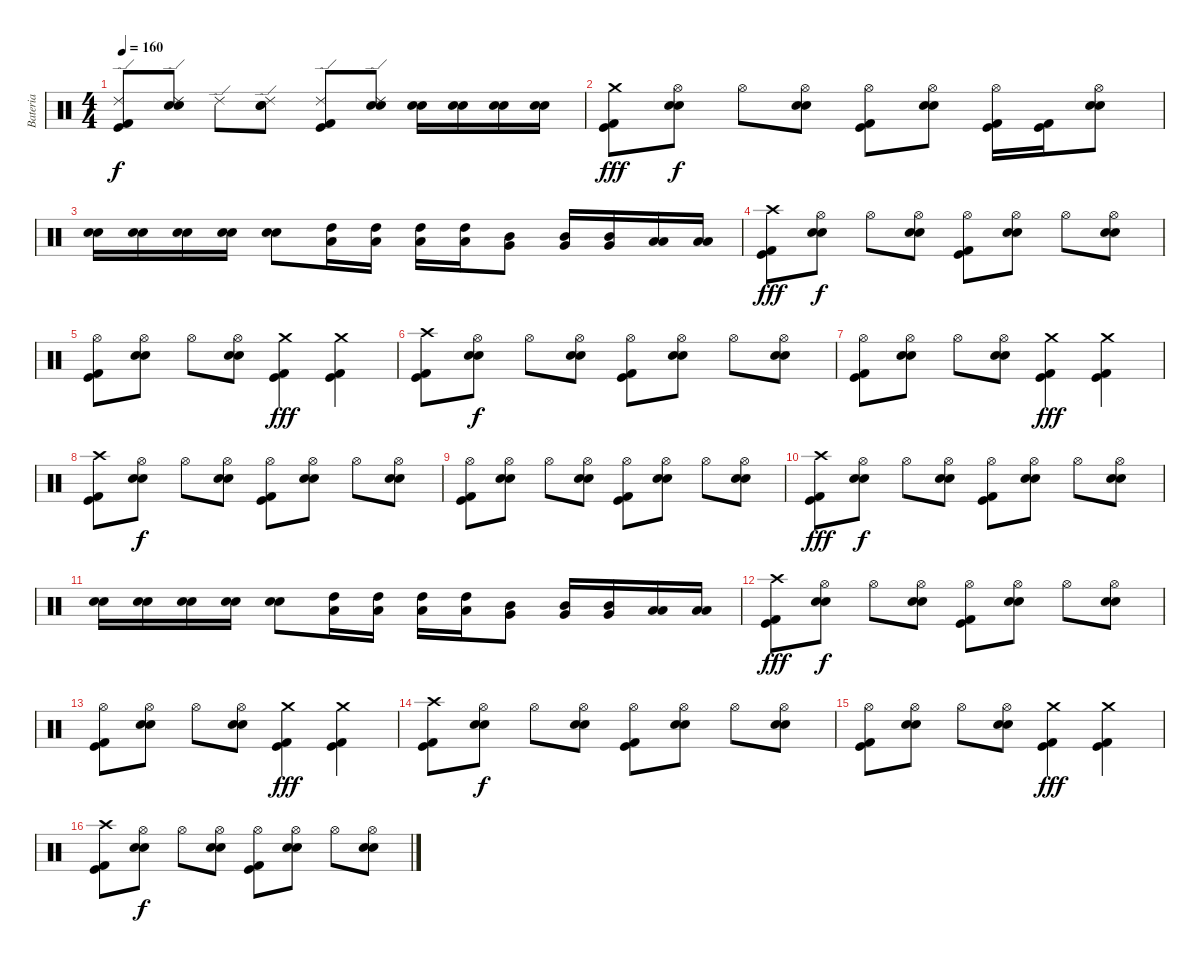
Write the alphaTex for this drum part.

\track ("Bateria" "Bateria") {instrument percussion}
\staff {score}
\articulation defaults
\ts (4 4)
\tempo 160
\clef neutral
\ks c
("Ride (edge) 2" "Kick (hit) 2" "Kick (hit)").8{dy f} ("Ride (edge) 2" "Electric Snare (hit)" "Snare (hit) 2").8 "Ride (edge) 2".8 ("Ride (edge) 2" "Electric Snare (hit)" "Snare (hit) 2").8 ("Ride (edge) 2" "Kick (hit) 2" "Kick (hit)").8 ("Ride (edge) 2" "Electric Snare (hit)" "Snare (hit) 2").8 ("Electric Snare (hit)" "Snare (hit) 2").16 ("Electric Snare (hit)" "Snare (hit) 2").16 ("Electric Snare (hit)" "Snare (hit) 2").16 ("Electric Snare (hit)" "Snare (hit) 2").16 |
("Crash medium (hit)" "Kick (hit) 2" "Kick (hit)").8{dy fff} ("Hi-Hat (open)" "Electric Snare (hit)" "Snare (hit) 2").8{dy f} "Hi-Hat (open)".8 ("Hi-Hat (open)" "Electric Snare (hit)" "Snare (hit) 2").8 ("Hi-Hat (open)" "Kick (hit) 2" "Kick (hit)").8 ("Hi-Hat (open)" "Electric Snare (hit)" "Snare (hit) 2").8 ("Hi-Hat (open)" "Kick (hit) 2" "Kick (hit)").16 ("Kick (hit) 2" "Kick (hit)").16 ("Hi-Hat (open)" "Electric Snare (hit)" "Snare (hit) 2").8 |
("Electric Snare (hit)" "Snare (hit) 2").16 ("Electric Snare (hit)" "Snare (hit) 2").16 ("Electric Snare (hit)" "Snare (hit) 2").16 ("Electric Snare (hit)" "Snare (hit) 2").16 ("Electric Snare (hit)" "Snare (hit) 2").8 ("High Tom (hit)" "Low Tom (hit)").16 ("High Tom (hit)" "Low Tom (hit)").16 ("High Tom (hit)" "Low Tom (hit)").16 ("High Tom (hit)" "Low Tom (hit)").16 ("Mid Tom (hit)" "Very Low Tom (hit)").8 ("Mid Tom (hit)" "Very Low Tom (hit)").16 ("Mid Tom (hit)" "Very Low Tom (hit)").16 ("Low Tom (hit)" "Low Floor Tom (hit)").16 ("Low Tom (hit)" "Low Floor Tom (hit)").16 |
("Crash high (hit)" "Kick (hit) 2" "Kick (hit)").8{dy fff} ("Hi-Hat (open)" "Electric Snare (hit)" "Snare (hit) 2").8{dy f} "Hi-Hat (open)".8 ("Hi-Hat (open)" "Electric Snare (hit)" "Snare (hit) 2").8 ("Hi-Hat (open)" "Kick (hit) 2" "Kick (hit)").8 ("Hi-Hat (open)" "Electric Snare (hit)" "Snare (hit) 2").8 "Hi-Hat (open)".8 ("Hi-Hat (open)" "Electric Snare (hit)" "Snare (hit) 2").8 |
("Hi-Hat (open)" "Kick (hit) 2" "Kick (hit)").8 ("Hi-Hat (open)" "Electric Snare (hit)" "Snare (hit) 2").8 "Hi-Hat (open)".8 ("Hi-Hat (open)" "Electric Snare (hit)" "Snare (hit) 2").8 ("Crash medium (hit)" "Kick (hit) 2" "Kick (hit)").4{dy fff} ("Crash medium (hit)" "Kick (hit) 2" "Kick (hit)").4 |
("Crash high (hit)" "Kick (hit) 2" "Kick (hit)").8 ("Hi-Hat (open)" "Electric Snare (hit)" "Snare (hit) 2").8{dy f} "Hi-Hat (open)".8 ("Hi-Hat (open)" "Electric Snare (hit)" "Snare (hit) 2").8 ("Hi-Hat (open)" "Kick (hit) 2" "Kick (hit)").8 ("Hi-Hat (open)" "Electric Snare (hit)" "Snare (hit) 2").8 "Hi-Hat (open)".8 ("Hi-Hat (open)" "Electric Snare (hit)" "Snare (hit) 2").8 |
("Hi-Hat (open)" "Kick (hit) 2" "Kick (hit)").8 ("Hi-Hat (open)" "Electric Snare (hit)" "Snare (hit) 2").8 "Hi-Hat (open)".8 ("Hi-Hat (open)" "Electric Snare (hit)" "Snare (hit) 2").8 ("Crash medium (hit)" "Kick (hit) 2" "Kick (hit)").4{dy fff} ("Crash medium (hit)" "Kick (hit) 2" "Kick (hit)").4 |
("Crash high (hit)" "Kick (hit) 2" "Kick (hit)").8 ("Hi-Hat (open)" "Electric Snare (hit)" "Snare (hit) 2").8{dy f} "Hi-Hat (open)".8 ("Hi-Hat (open)" "Electric Snare (hit)" "Snare (hit) 2").8 ("Hi-Hat (open)" "Kick (hit) 2" "Kick (hit)").8 ("Hi-Hat (open)" "Electric Snare (hit)" "Snare (hit) 2").8 "Hi-Hat (open)".8 ("Hi-Hat (open)" "Electric Snare (hit)" "Snare (hit) 2").8 |
("Hi-Hat (open)" "Kick (hit) 2" "Kick (hit)").8 ("Hi-Hat (open)" "Electric Snare (hit)" "Snare (hit) 2").8 "Hi-Hat (open)".8 ("Hi-Hat (open)" "Electric Snare (hit)" "Snare (hit) 2").8 ("Hi-Hat (open)" "Kick (hit) 2" "Kick (hit)").8 ("Hi-Hat (open)" "Electric Snare (hit)" "Snare (hit) 2").8 "Hi-Hat (open)".8 ("Hi-Hat (open)" "Electric Snare (hit)" "Snare (hit) 2").8 |
("Crash high (hit)" "Kick (hit) 2" "Kick (hit)").8{dy fff} ("Hi-Hat (open)" "Electric Snare (hit)" "Snare (hit) 2").8{dy f} "Hi-Hat (open)".8 ("Hi-Hat (open)" "Electric Snare (hit)" "Snare (hit) 2").8 ("Hi-Hat (open)" "Kick (hit) 2" "Kick (hit)").8 ("Hi-Hat (open)" "Electric Snare (hit)" "Snare (hit) 2").8 "Hi-Hat (open)".8 ("Hi-Hat (open)" "Electric Snare (hit)" "Snare (hit) 2").8 |
("Electric Snare (hit)" "Snare (hit) 2").16 ("Electric Snare (hit)" "Snare (hit) 2").16 ("Electric Snare (hit)" "Snare (hit) 2").16 ("Electric Snare (hit)" "Snare (hit) 2").16 ("Electric Snare (hit)" "Snare (hit) 2").8 ("High Tom (hit)" "Low Tom (hit)").16 ("High Tom (hit)" "Low Tom (hit)").16 ("High Tom (hit)" "Low Tom (hit)").16 ("High Tom (hit)" "Low Tom (hit)").16 ("Mid Tom (hit)" "Very Low Tom (hit)").8 ("Mid Tom (hit)" "Very Low Tom (hit)").16 ("Mid Tom (hit)" "Very Low Tom (hit)").16 ("Low Tom (hit)" "Low Floor Tom (hit)").16 ("Low Tom (hit)" "Low Floor Tom (hit)").16 |
("Crash high (hit)" "Kick (hit) 2" "Kick (hit)").8{dy fff} ("Hi-Hat (open)" "Electric Snare (hit)" "Snare (hit) 2").8{dy f} "Hi-Hat (open)".8 ("Hi-Hat (open)" "Electric Snare (hit)" "Snare (hit) 2").8 ("Hi-Hat (open)" "Kick (hit) 2" "Kick (hit)").8 ("Hi-Hat (open)" "Electric Snare (hit)" "Snare (hit) 2").8 "Hi-Hat (open)".8 ("Hi-Hat (open)" "Electric Snare (hit)" "Snare (hit) 2").8 |
("Hi-Hat (open)" "Kick (hit) 2" "Kick (hit)").8 ("Hi-Hat (open)" "Electric Snare (hit)" "Snare (hit) 2").8 "Hi-Hat (open)".8 ("Hi-Hat (open)" "Electric Snare (hit)" "Snare (hit) 2").8 ("Crash medium (hit)" "Kick (hit) 2" "Kick (hit)").4{dy fff} ("Crash medium (hit)" "Kick (hit) 2" "Kick (hit)").4 |
("Crash high (hit)" "Kick (hit) 2" "Kick (hit)").8 ("Hi-Hat (open)" "Electric Snare (hit)" "Snare (hit) 2").8{dy f} "Hi-Hat (open)".8 ("Hi-Hat (open)" "Electric Snare (hit)" "Snare (hit) 2").8 ("Hi-Hat (open)" "Kick (hit) 2" "Kick (hit)").8 ("Hi-Hat (open)" "Electric Snare (hit)" "Snare (hit) 2").8 "Hi-Hat (open)".8 ("Hi-Hat (open)" "Electric Snare (hit)" "Snare (hit) 2").8 |
("Hi-Hat (open)" "Kick (hit) 2" "Kick (hit)").8 ("Hi-Hat (open)" "Electric Snare (hit)" "Snare (hit) 2").8 "Hi-Hat (open)".8 ("Hi-Hat (open)" "Electric Snare (hit)" "Snare (hit) 2").8 ("Crash medium (hit)" "Kick (hit) 2" "Kick (hit)").4{dy fff} ("Crash medium (hit)" "Kick (hit) 2" "Kick (hit)").4 |
("Crash high (hit)" "Kick (hit) 2" "Kick (hit)").8 ("Hi-Hat (open)" "Electric Snare (hit)" "Snare (hit) 2").8{dy f} "Hi-Hat (open)".8 ("Hi-Hat (open)" "Electric Snare (hit)" "Snare (hit) 2").8 ("Hi-Hat (open)" "Kick (hit) 2" "Kick (hit)").8 ("Hi-Hat (open)" "Electric Snare (hit)" "Snare (hit) 2").8 "Hi-Hat (open)".8 ("Hi-Hat (open)" "Electric Snare (hit)" "Snare (hit) 2").8
